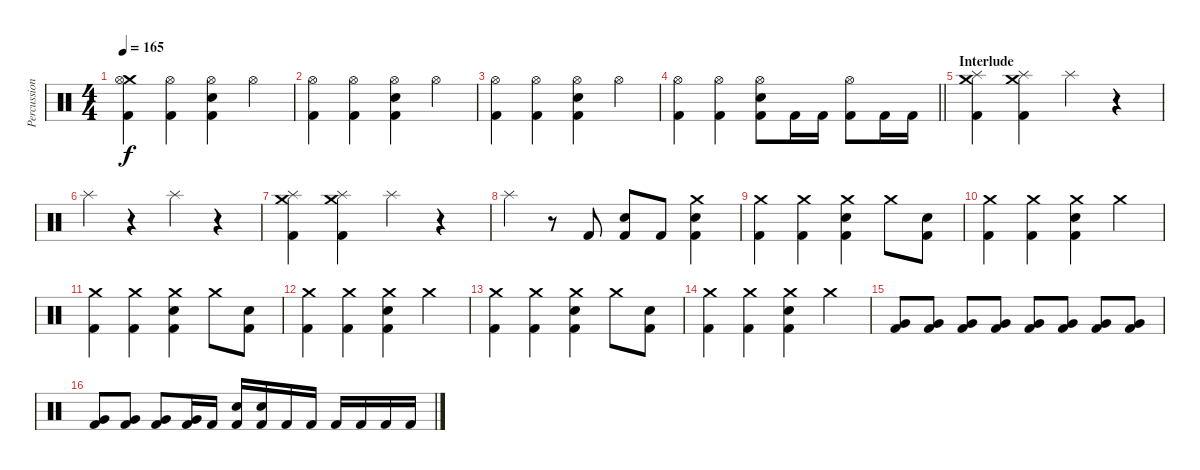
\track ("Percussions" "Percussion") {instrument percussion}
\staff {score}
\articulation defaults
\ts (4 4)
\tempo 165
\clef neutral
\ks c
("Crash medium (hit)" "Hi-Hat (open)" "Kick (hit) 2").4{dy f} ("Hi-Hat (open)" "Kick (hit) 2").4 ("Hi-Hat (open)" "Electric Snare (hit)" "Kick (hit) 2").4 "Hi-Hat (open)".4 |
("Hi-Hat (open)" "Kick (hit) 2").4 ("Hi-Hat (open)" "Kick (hit) 2").4 ("Hi-Hat (open)" "Electric Snare (hit)" "Kick (hit) 2").4 "Hi-Hat (open)".4 |
("Hi-Hat (open)" "Kick (hit) 2").4 ("Hi-Hat (open)" "Kick (hit) 2").4 ("Hi-Hat (open)" "Electric Snare (hit)" "Kick (hit) 2").4 "Hi-Hat (open)".4 |
\barLineRight lightlight
("Hi-Hat (open)" "Kick (hit) 2").4 ("Hi-Hat (open)" "Kick (hit) 2").4 ("Hi-Hat (open)" "Electric Snare (hit)" "Kick (hit) 2").8 "Kick (hit) 2".16 "Kick (hit) 2".16 ("Hi-Hat (open)" "Kick (hit) 2").8 "Kick (hit) 2".16 "Kick (hit) 2".16 |
\section ("" "Interlude")
("Crash medium (hit)" "Splash (hit)" "Kick (hit) 2").4 ("Crash medium (hit)" "Splash (hit)" "Kick (hit) 2").4 "Splash (hit)".4 r.4 |
"Splash (hit)".4 r.4 "Splash (hit)".4 r.4 |
("Crash medium (hit)" "Splash (hit)" "Kick (hit) 2").4 ("Crash medium (hit)" "Splash (hit)" "Kick (hit) 2").4 "Splash (hit)".4 r.4 |
"Splash (hit)".4 r.8 "Kick (hit) 2".8 ("Electric Snare (hit)" "Kick (hit) 2").8 "Kick (hit) 2".8 ("Crash medium (hit)" "Electric Snare (hit)" "Kick (hit) 2").4 |
("Crash medium (hit)" "Kick (hit) 2").4 ("Crash medium (hit)" "Kick (hit) 2").4 ("Crash medium (hit)" "Electric Snare (hit)" "Kick (hit) 2").4 "Crash medium (hit)".8 ("Electric Snare (hit)" "Kick (hit) 2").8 |
("Crash medium (hit)" "Kick (hit) 2").4 ("Crash medium (hit)" "Kick (hit) 2").4 ("Crash medium (hit)" "Electric Snare (hit)" "Kick (hit) 2").4 "Crash medium (hit)".4 |
("Crash medium (hit)" "Kick (hit) 2").4 ("Crash medium (hit)" "Kick (hit) 2").4 ("Crash medium (hit)" "Electric Snare (hit)" "Kick (hit) 2").4 "Crash medium (hit)".8 ("Electric Snare (hit)" "Kick (hit) 2").8 |
("Crash medium (hit)" "Kick (hit) 2").4 ("Crash medium (hit)" "Kick (hit) 2").4 ("Crash medium (hit)" "Electric Snare (hit)" "Kick (hit) 2").4 "Crash medium (hit)".4 |
("Crash medium (hit)" "Kick (hit) 2").4 ("Crash medium (hit)" "Kick (hit) 2").4 ("Crash medium (hit)" "Electric Snare (hit)" "Kick (hit) 2").4 "Crash medium (hit)".8 ("Electric Snare (hit)" "Kick (hit) 2").8 |
("Crash medium (hit)" "Kick (hit) 2").4 ("Crash medium (hit)" "Kick (hit) 2").4 ("Crash medium (hit)" "Electric Snare (hit)" "Kick (hit) 2").4 "Crash medium (hit)".4 |
("Very Low Tom (hit)" "Kick (hit) 2").8 ("Very Low Tom (hit)" "Kick (hit) 2").8 ("Very Low Tom (hit)" "Kick (hit) 2").8 ("Very Low Tom (hit)" "Kick (hit) 2").8 ("Very Low Tom (hit)" "Kick (hit) 2").8 ("Very Low Tom (hit)" "Kick (hit) 2").8 ("Very Low Tom (hit)" "Kick (hit) 2").8 ("Very Low Tom (hit)" "Kick (hit) 2").8 |
("Very Low Tom (hit)" "Kick (hit) 2").8 ("Very Low Tom (hit)" "Kick (hit) 2").8 ("Very Low Tom (hit)" "Kick (hit) 2").8 ("Very Low Tom (hit)" "Kick (hit) 2").16 "Kick (hit) 2".16 ("Electric Snare (hit)" "Kick (hit) 2").16 ("Electric Snare (hit)" "Kick (hit) 2").16 "Kick (hit) 2".16 "Kick (hit) 2".16 "Kick (hit) 2".16 "Kick (hit) 2".16 "Kick (hit) 2".16 "Kick (hit) 2".16
